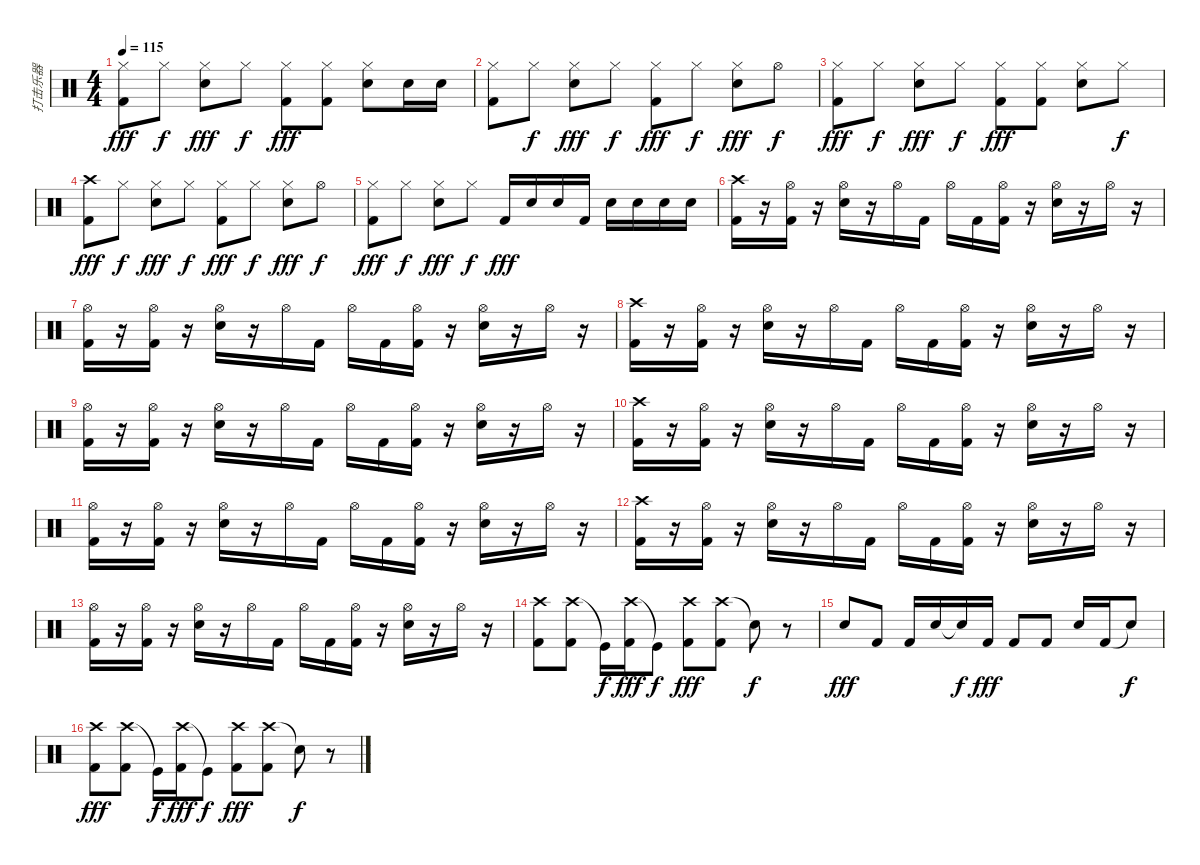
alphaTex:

\track ("打击乐器" "打击乐器") {instrument percussion}
\staff {score}
\articulation defaults
\ts (4 4)
\tempo 115
\clef neutral
\ks c
("Hi-Hat (closed)" "Kick (hit) 2").8{dy fff} "Hi-Hat (closed)".8{dy f} ("Hi-Hat (closed)" "Electric Snare (hit)").8{dy fff} "Hi-Hat (closed)".8{dy f} ("Hi-Hat (closed)" "Kick (hit) 2").8{dy fff} ("Hi-Hat (closed)" "Kick (hit) 2").8 ("Hi-Hat (closed)" "Electric Snare (hit)").8 "Electric Snare (hit)".16 "Electric Snare (hit)".16 |
("Hi-Hat (closed)" "Kick (hit) 2").8 "Hi-Hat (closed)".8{dy f} ("Hi-Hat (closed)" "Electric Snare (hit)").8{dy fff} "Hi-Hat (closed)".8{dy f} ("Hi-Hat (closed)" "Kick (hit) 2").8{dy fff} "Hi-Hat (closed)".8{dy f} ("Hi-Hat (closed)" "Electric Snare (hit)").8{dy fff} "Hi-Hat (open)".8{dy f} |
("Hi-Hat (closed)" "Kick (hit) 2").8{dy fff} "Hi-Hat (closed)".8{dy f} ("Hi-Hat (closed)" "Electric Snare (hit)").8{dy fff} "Hi-Hat (closed)".8{dy f} ("Hi-Hat (closed)" "Kick (hit) 2").8{dy fff} ("Hi-Hat (closed)" "Kick (hit) 2").8 ("Hi-Hat (closed)" "Electric Snare (hit)").8 "Hi-Hat (closed)".8{dy f} |
("Crash high (hit)" "Kick (hit) 2").8{dy fff} "Hi-Hat (closed)".8{dy f} ("Hi-Hat (closed)" "Electric Snare (hit)").8{dy fff} "Hi-Hat (closed)".8{dy f} ("Hi-Hat (closed)" "Kick (hit) 2").8{dy fff} "Hi-Hat (closed)".8{dy f} ("Hi-Hat (closed)" "Electric Snare (hit)").8{dy fff} "Hi-Hat (open)".8{dy f} |
("Hi-Hat (closed)" "Kick (hit) 2").8{dy fff} "Hi-Hat (closed)".8{dy f} ("Hi-Hat (closed)" "Electric Snare (hit)").8{dy fff} "Hi-Hat (closed)".8{dy f} "Kick (hit) 2".16{dy fff} "Electric Snare (hit)".16 "Snare (hit)".16 "Kick (hit) 2".16 "Electric Snare (hit)".16 "Electric Snare (hit)".16 "Electric Snare (hit)".16 "Electric Snare (hit)".16 |
("Crash high (hit)" "Kick (hit) 2").16 r.16 ("Hi-Hat (open)" "Kick (hit) 2").16 r.16 ("Hi-Hat (open)" "Electric Snare (hit)").16 r.16 "Hi-Hat (open)".16 "Kick (hit) 2".16 "Hi-Hat (open)".16 "Kick (hit) 2".16 ("Hi-Hat (open)" "Kick (hit) 2").16 r.16 ("Hi-Hat (open)" "Electric Snare (hit)").16 r.16 "Hi-Hat (open)".16 r.16 |
("Hi-Hat (open)" "Kick (hit) 2").16 r.16 ("Hi-Hat (open)" "Kick (hit) 2").16 r.16 ("Hi-Hat (open)" "Electric Snare (hit)").16 r.16 "Hi-Hat (open)".16 "Kick (hit) 2".16 "Hi-Hat (open)".16 "Kick (hit) 2".16 ("Hi-Hat (open)" "Kick (hit) 2").16 r.16 ("Hi-Hat (open)" "Electric Snare (hit)").16 r.16 "Hi-Hat (open)".16 r.16 |
("Crash high (hit)" "Kick (hit) 2").16 r.16 ("Hi-Hat (open)" "Kick (hit) 2").16 r.16 ("Hi-Hat (open)" "Electric Snare (hit)").16 r.16 "Hi-Hat (open)".16 "Kick (hit) 2".16 "Hi-Hat (open)".16 "Kick (hit) 2".16 ("Hi-Hat (open)" "Kick (hit) 2").16 r.16 ("Hi-Hat (open)" "Electric Snare (hit)").16 r.16 "Hi-Hat (open)".16 r.16 |
("Hi-Hat (open)" "Kick (hit) 2").16 r.16 ("Hi-Hat (open)" "Kick (hit) 2").16 r.16 ("Hi-Hat (open)" "Electric Snare (hit)").16 r.16 "Hi-Hat (open)".16 "Kick (hit) 2".16 "Hi-Hat (open)".16 "Kick (hit) 2".16 ("Hi-Hat (open)" "Kick (hit) 2").16 r.16 ("Hi-Hat (open)" "Electric Snare (hit)").16 r.16 "Hi-Hat (open)".16 r.16 |
("Crash high (hit)" "Kick (hit) 2").16 r.16 ("Hi-Hat (open)" "Kick (hit) 2").16 r.16 ("Hi-Hat (open)" "Electric Snare (hit)").16 r.16 "Hi-Hat (open)".16 "Kick (hit) 2".16 "Hi-Hat (open)".16 "Kick (hit) 2".16 ("Hi-Hat (open)" "Kick (hit) 2").16 r.16 ("Hi-Hat (open)" "Electric Snare (hit)").16 r.16 "Hi-Hat (open)".16 r.16 |
("Hi-Hat (open)" "Kick (hit) 2").16 r.16 ("Hi-Hat (open)" "Kick (hit) 2").16 r.16 ("Hi-Hat (open)" "Electric Snare (hit)").16 r.16 "Hi-Hat (open)".16 "Kick (hit) 2".16 "Hi-Hat (open)".16 "Kick (hit) 2".16 ("Hi-Hat (open)" "Kick (hit) 2").16 r.16 ("Hi-Hat (open)" "Electric Snare (hit)").16 r.16 "Hi-Hat (open)".16 r.16 |
("Crash high (hit)" "Kick (hit) 2").16 r.16 ("Hi-Hat (open)" "Kick (hit) 2").16 r.16 ("Hi-Hat (open)" "Electric Snare (hit)").16 r.16 "Hi-Hat (open)".16 "Kick (hit) 2".16 "Hi-Hat (open)".16 "Kick (hit) 2".16 ("Hi-Hat (open)" "Kick (hit) 2").16 r.16 ("Hi-Hat (open)" "Electric Snare (hit)").16 r.16 "Hi-Hat (open)".16 r.16 |
("Hi-Hat (open)" "Kick (hit) 2").16 r.16 ("Hi-Hat (open)" "Kick (hit) 2").16 r.16 ("Hi-Hat (open)" "Electric Snare (hit)").16 r.16 "Hi-Hat (open)".16 "Kick (hit) 2".16 "Hi-Hat (open)".16 "Kick (hit) 2".16 ("Hi-Hat (open)" "Kick (hit) 2").16 r.16 ("Hi-Hat (open)" "Electric Snare (hit)").16 r.16 "Hi-Hat (open)".16 r.16 |
("Crash high (hit)" "Kick (hit) 2").8 ("Crash high (hit)" "Kick (hit) 2").8 "Kick (hit)"{t}.16{dy f} ("Crash high (hit)" "Kick (hit) 2").16{dy fff} "Kick (hit)"{t}.8{dy f} ("Crash high (hit)" "Kick (hit) 2").8{dy fff} ("Crash high (hit)" "Kick (hit) 2").8 "Snare (hit)"{t}.8{dy f} r.8 |
"Electric Snare (hit)".8{dy fff} "Kick (hit) 2".8 "Kick (hit) 2".16 "Electric Snare (hit)".16 "Snare (hit) 2"{t}.16{dy f} "Kick (hit) 2".16{dy fff} "Kick (hit) 2".8 "Kick (hit) 2".8 "Electric Snare (hit)".16 "Kick (hit) 2".16 "Snare (hit)"{t}.8{dy f} |
("Crash high (hit)" "Kick (hit) 2").8{dy fff} ("Crash high (hit)" "Kick (hit) 2").8 "Kick (hit)"{t}.16{dy f} ("Crash high (hit)" "Kick (hit) 2").16{dy fff} "Kick (hit)"{t}.8{dy f} ("Crash high (hit)" "Kick (hit) 2").8{dy fff} ("Crash high (hit)" "Kick (hit) 2").8 "Snare (hit)"{t}.8{dy f} r.8
